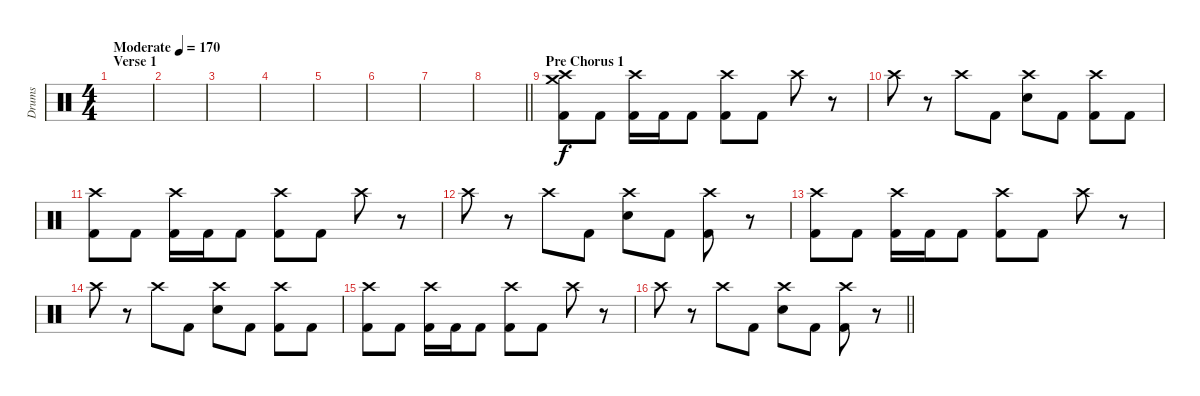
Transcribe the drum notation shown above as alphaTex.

\track ("Drums" "Drums") {instrument percussion}
\staff {score}
\articulation defaults
\ts (4 4)
\section ("" "Verse 1")
\tempo (170 "Moderate")
\clef neutral
\ks c
|
|
|
|
|
|
|
\barLineRight lightlight
|
\section ("" "Pre Chorus 1")
("Crash high (hit)" "Kick (hit) 2" "Crash medium (hit)").8 "Kick (hit) 2".8 ("Crash high (hit)" "Kick (hit) 2").16 "Kick (hit) 2".16 "Kick (hit) 2".8 ("Crash high (hit)" "Kick (hit) 2").8 "Kick (hit) 2".8 "Crash high (hit)".8 r.8 |
"Crash high (hit)".8 r.8 "Crash high (hit)".8 "Kick (hit) 2".8 ("Crash high (hit)" "Electric Snare (hit)").8 "Kick (hit) 2".8 ("Crash high (hit)" "Kick (hit) 2").8 "Kick (hit) 2".8 |
("Crash high (hit)" "Kick (hit) 2").8 "Kick (hit) 2".8 ("Crash high (hit)" "Kick (hit) 2").16 "Kick (hit) 2".16 "Kick (hit) 2".8 ("Crash high (hit)" "Kick (hit) 2").8 "Kick (hit) 2".8 "Crash high (hit)".8 r.8 |
"Crash high (hit)".8 r.8 "Crash high (hit)".8 "Kick (hit) 2".8 ("Crash high (hit)" "Electric Snare (hit)").8 "Kick (hit) 2".8 ("Crash high (hit)" "Kick (hit) 2").8 r.8 |
("Crash high (hit)" "Kick (hit) 2").8 "Kick (hit) 2".8 ("Crash high (hit)" "Kick (hit) 2").16 "Kick (hit) 2".16 "Kick (hit) 2".8 ("Crash high (hit)" "Kick (hit) 2").8 "Kick (hit) 2".8 "Crash high (hit)".8 r.8 |
"Crash high (hit)".8 r.8 "Crash high (hit)".8 "Kick (hit) 2".8 ("Crash high (hit)" "Electric Snare (hit)").8 "Kick (hit) 2".8 ("Crash high (hit)" "Kick (hit) 2").8 "Kick (hit) 2".8 |
("Crash high (hit)" "Kick (hit) 2").8 "Kick (hit) 2".8 ("Crash high (hit)" "Kick (hit) 2").16 "Kick (hit) 2".16 "Kick (hit) 2".8 ("Crash high (hit)" "Kick (hit) 2").8 "Kick (hit) 2".8 "Crash high (hit)".8 r.8 |
\barLineRight lightlight "Crash high (hit)".8
r.8 "Crash high (hit)".8 "Kick (hit) 2".8 ("Crash high (hit)" "Electric Snare (hit)").8 "Kick (hit) 2".8 ("Crash high (hit)" "Kick (hit) 2").8 r.8
